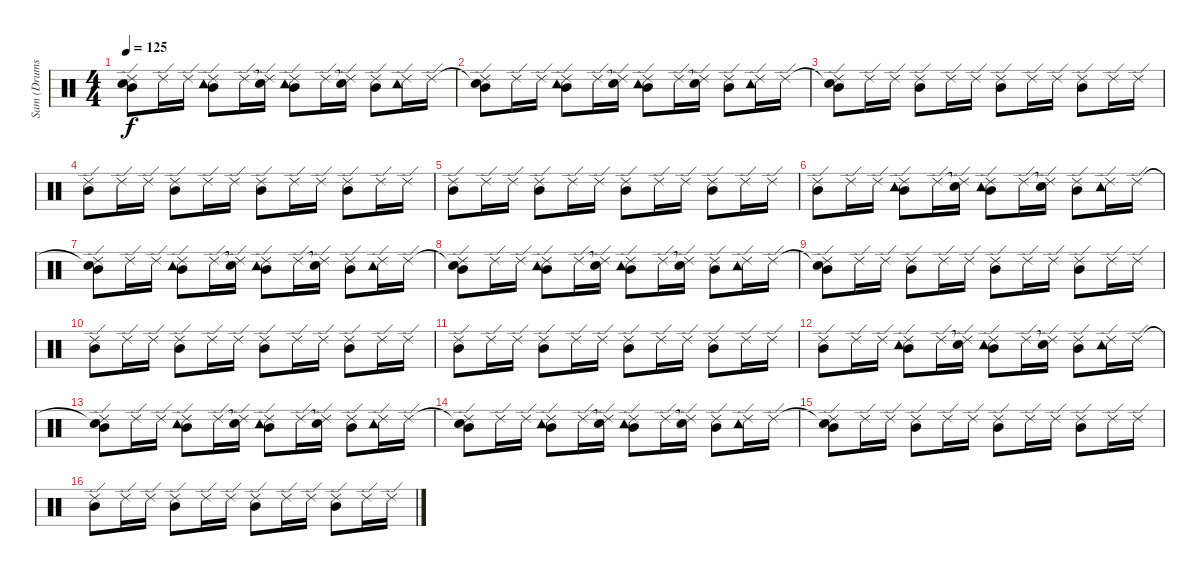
\track ("Sam (Drums)" "Sam (Drums") {instrument percussion}
\staff {score}
\articulation defaults
\ts (4 4)
\tempo 125
\clef neutral
\ks c
("Snare (hit)"{t} "Ride (edge) 2" "Mid Tom (hit)").8{dy f} "Ride (edge) 2".16 "Ride (edge) 2".16 ("Tambourine (hit)" "Ride (edge) 2" "Mid Tom (hit)").8 "Ride (edge) 2".16 ("Snare (hit)"{t} "Ride (edge) 2").16 ("Tambourine (hit)" "Ride (edge) 2" "Mid Tom (hit)").8 "Ride (edge) 2".16 ("Snare (hit)"{t} "Ride (edge) 2").16 ("Ride (edge) 2" "Mid Tom (hit)").8 ("Tambourine (hit)" "Ride (edge) 2").16 "Ride (edge) 2".16 |
("Snare (hit)"{t} "Ride (edge) 2" "Mid Tom (hit)").8 "Ride (edge) 2".16 "Ride (edge) 2".16 ("Tambourine (hit)" "Ride (edge) 2" "Mid Tom (hit)").8 "Ride (edge) 2".16 ("Snare (hit)"{t} "Ride (edge) 2").16 ("Tambourine (hit)" "Ride (edge) 2" "Mid Tom (hit)").8 "Ride (edge) 2".16 ("Snare (hit)"{t} "Ride (edge) 2").16 ("Ride (edge) 2" "Mid Tom (hit)").8 ("Tambourine (hit)" "Ride (edge) 2").16 "Ride (edge) 2".16 |
("Snare (hit)"{t} "Ride (edge) 2" "Mid Tom (hit)").8 "Ride (edge) 2".16 "Ride (edge) 2".16 ("Ride (edge) 2" "Mid Tom (hit)").8 "Ride (edge) 2".16 "Ride (edge) 2".16 ("Ride (edge) 2" "Mid Tom (hit)").8 "Ride (edge) 2".16 "Ride (edge) 2".16 ("Ride (edge) 2" "Mid Tom (hit)").8 "Ride (edge) 2".16 "Ride (edge) 2".16 |
("Ride (edge) 2" "Mid Tom (hit)").8 "Ride (edge) 2".16 "Ride (edge) 2".16 ("Ride (edge) 2" "Mid Tom (hit)").8 "Ride (edge) 2".16 "Ride (edge) 2".16 ("Ride (edge) 2" "Mid Tom (hit)").8 "Ride (edge) 2".16 "Ride (edge) 2".16 ("Ride (edge) 2" "Mid Tom (hit)").8 "Ride (edge) 2".16 "Ride (edge) 2".16 |
("Ride (edge) 2" "Mid Tom (hit)").8 "Ride (edge) 2".16 "Ride (edge) 2".16 ("Ride (edge) 2" "Mid Tom (hit)").8 "Ride (edge) 2".16 "Ride (edge) 2".16 ("Ride (edge) 2" "Mid Tom (hit)").8 "Ride (edge) 2".16 "Ride (edge) 2".16 ("Ride (edge) 2" "Mid Tom (hit)").8 "Ride (edge) 2".16 "Ride (edge) 2".16 |
("Ride (edge) 2" "Mid Tom (hit)").8 "Ride (edge) 2".16 "Ride (edge) 2".16 ("Tambourine (hit)" "Ride (edge) 2" "Mid Tom (hit)").8 "Ride (edge) 2".16 ("Snare (hit)"{t} "Ride (edge) 2").16 ("Tambourine (hit)" "Ride (edge) 2" "Mid Tom (hit)").8 "Ride (edge) 2".16 ("Snare (hit)"{t} "Ride (edge) 2").16 ("Ride (edge) 2" "Mid Tom (hit)").8 ("Tambourine (hit)" "Ride (edge) 2").16 "Ride (edge) 2".16 |
("Snare (hit)"{t} "Ride (edge) 2" "Mid Tom (hit)").8 "Ride (edge) 2".16 "Ride (edge) 2".16 ("Tambourine (hit)" "Ride (edge) 2" "Mid Tom (hit)").8 "Ride (edge) 2".16 ("Snare (hit)"{t} "Ride (edge) 2").16 ("Tambourine (hit)" "Ride (edge) 2" "Mid Tom (hit)").8 "Ride (edge) 2".16 ("Snare (hit)"{t} "Ride (edge) 2").16 ("Ride (edge) 2" "Mid Tom (hit)").8 ("Tambourine (hit)" "Ride (edge) 2").16 "Ride (edge) 2".16 |
("Snare (hit)"{t} "Ride (edge) 2" "Mid Tom (hit)").8 "Ride (edge) 2".16 "Ride (edge) 2".16 ("Tambourine (hit)" "Ride (edge) 2" "Mid Tom (hit)").8 "Ride (edge) 2".16 ("Snare (hit)"{t} "Ride (edge) 2").16 ("Tambourine (hit)" "Ride (edge) 2" "Mid Tom (hit)").8 "Ride (edge) 2".16 ("Snare (hit)"{t} "Ride (edge) 2").16 ("Ride (edge) 2" "Mid Tom (hit)").8 ("Tambourine (hit)" "Ride (edge) 2").16 "Ride (edge) 2".16 |
("Snare (hit)"{t} "Ride (edge) 2" "Mid Tom (hit)").8 "Ride (edge) 2".16 "Ride (edge) 2".16 ("Ride (edge) 2" "Mid Tom (hit)").8 "Ride (edge) 2".16 "Ride (edge) 2".16 ("Ride (edge) 2" "Mid Tom (hit)").8 "Ride (edge) 2".16 "Ride (edge) 2".16 ("Ride (edge) 2" "Mid Tom (hit)").8 "Ride (edge) 2".16 "Ride (edge) 2".16 |
("Ride (edge) 2" "Mid Tom (hit)").8 "Ride (edge) 2".16 "Ride (edge) 2".16 ("Ride (edge) 2" "Mid Tom (hit)").8 "Ride (edge) 2".16 "Ride (edge) 2".16 ("Ride (edge) 2" "Mid Tom (hit)").8 "Ride (edge) 2".16 "Ride (edge) 2".16 ("Ride (edge) 2" "Mid Tom (hit)").8 "Ride (edge) 2".16 "Ride (edge) 2".16 |
("Ride (edge) 2" "Mid Tom (hit)").8 "Ride (edge) 2".16 "Ride (edge) 2".16 ("Ride (edge) 2" "Mid Tom (hit)").8 "Ride (edge) 2".16 "Ride (edge) 2".16 ("Ride (edge) 2" "Mid Tom (hit)").8 "Ride (edge) 2".16 "Ride (edge) 2".16 ("Ride (edge) 2" "Mid Tom (hit)").8 "Ride (edge) 2".16 "Ride (edge) 2".16 |
("Ride (edge) 2" "Mid Tom (hit)").8 "Ride (edge) 2".16 "Ride (edge) 2".16 ("Tambourine (hit)" "Ride (edge) 2" "Mid Tom (hit)").8 "Ride (edge) 2".16 ("Snare (hit)"{t} "Ride (edge) 2").16 ("Tambourine (hit)" "Ride (edge) 2" "Mid Tom (hit)").8 "Ride (edge) 2".16 ("Snare (hit)"{t} "Ride (edge) 2").16 ("Ride (edge) 2" "Mid Tom (hit)").8 ("Tambourine (hit)" "Ride (edge) 2").16 "Ride (edge) 2".16 |
("Snare (hit)"{t} "Ride (edge) 2" "Mid Tom (hit)").8 "Ride (edge) 2".16 "Ride (edge) 2".16 ("Tambourine (hit)" "Ride (edge) 2" "Mid Tom (hit)").8 "Ride (edge) 2".16 ("Snare (hit)"{t} "Ride (edge) 2").16 ("Tambourine (hit)" "Ride (edge) 2" "Mid Tom (hit)").8 "Ride (edge) 2".16 ("Snare (hit)"{t} "Ride (edge) 2").16 ("Ride (edge) 2" "Mid Tom (hit)").8 ("Tambourine (hit)" "Ride (edge) 2").16 "Ride (edge) 2".16 |
("Snare (hit)"{t} "Ride (edge) 2" "Mid Tom (hit)").8 "Ride (edge) 2".16 "Ride (edge) 2".16 ("Tambourine (hit)" "Ride (edge) 2" "Mid Tom (hit)").8 "Ride (edge) 2".16 ("Snare (hit)"{t} "Ride (edge) 2").16 ("Tambourine (hit)" "Ride (edge) 2" "Mid Tom (hit)").8 "Ride (edge) 2".16 ("Snare (hit)"{t} "Ride (edge) 2").16 ("Ride (edge) 2" "Mid Tom (hit)").8 ("Tambourine (hit)" "Ride (edge) 2").16 "Ride (edge) 2".16 |
("Snare (hit)"{t} "Ride (edge) 2" "Mid Tom (hit)").8 "Ride (edge) 2".16 "Ride (edge) 2".16 ("Ride (edge) 2" "Mid Tom (hit)").8 "Ride (edge) 2".16 "Ride (edge) 2".16 ("Ride (edge) 2" "Mid Tom (hit)").8 "Ride (edge) 2".16 "Ride (edge) 2".16 ("Ride (edge) 2" "Mid Tom (hit)").8 "Ride (edge) 2".16 "Ride (edge) 2".16 |
("Ride (edge) 2" "Mid Tom (hit)").8 "Ride (edge) 2".16 "Ride (edge) 2".16 ("Ride (edge) 2" "Mid Tom (hit)").8 "Ride (edge) 2".16 "Ride (edge) 2".16 ("Ride (edge) 2" "Mid Tom (hit)").8 "Ride (edge) 2".16 "Ride (edge) 2".16 ("Ride (edge) 2" "Mid Tom (hit)").8 "Ride (edge) 2".16 "Ride (edge) 2".16
